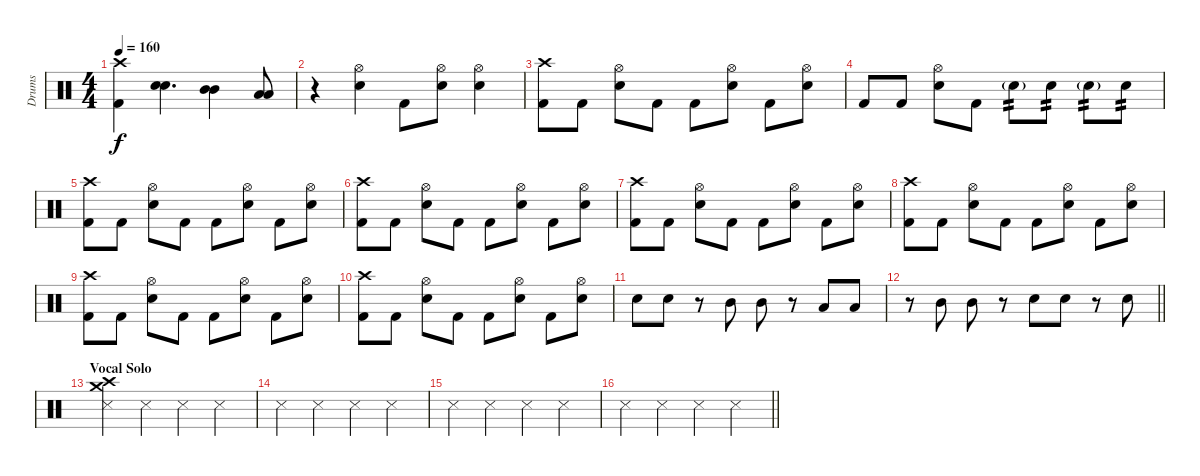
\track ("Drums" "Drums") {instrument percussion}
\staff {score}
\articulation defaults
\ts (4 4)
\tempo 160
\clef neutral
\ks c
("Crash high (hit)" "Kick (hit) 2").4{dy f} ("Electric Snare (hit)" "Electric Snare (hit)").4{d bu 240} ("Mid Tom (hit)" "Mid Tom (hit)").4{bu 480} ("Low Tom (hit)" "Low Tom (hit)").8{bu 480} |
r.4 ("Hi-Hat (open)" "Electric Snare (hit)").4 "Kick (hit) 2".8 ("Hi-Hat (open)" "Electric Snare (hit)").8 ("Hi-Hat (open)" "Electric Snare (hit)").4 |
("Crash high (hit)" "Kick (hit) 2").8 "Kick (hit) 2".8 ("Hi-Hat (open)" "Electric Snare (hit)").8 "Kick (hit) 2".8 "Kick (hit) 2".8 ("Hi-Hat (open)" "Electric Snare (hit)").8 "Kick (hit) 2".8 ("Hi-Hat (open)" "Electric Snare (hit)").8 |
"Kick (hit) 2".8 "Kick (hit) 2".8 ("Hi-Hat (open)" "Electric Snare (hit)").8 "Kick (hit) 2".8 "Electric Snare (hit)"{g}.8{tp 2} "Electric Snare (hit)".8{tp 2} "Electric Snare (hit)"{g}.8{tp 2} "Electric Snare (hit)".8{tp 2} |
("Crash high (hit)" "Kick (hit) 2").8 "Kick (hit) 2".8 ("Hi-Hat (open)" "Electric Snare (hit)").8 "Kick (hit) 2".8 "Kick (hit) 2".8 ("Hi-Hat (open)" "Electric Snare (hit)").8 "Kick (hit) 2".8 ("Hi-Hat (open)" "Electric Snare (hit)").8 |
("Crash high (hit)" "Kick (hit) 2").8 "Kick (hit) 2".8 ("Hi-Hat (open)" "Electric Snare (hit)").8 "Kick (hit) 2".8 "Kick (hit) 2".8 ("Hi-Hat (open)" "Electric Snare (hit)").8 "Kick (hit) 2".8 ("Hi-Hat (open)" "Electric Snare (hit)").8 |
("Crash high (hit)" "Kick (hit) 2").8 "Kick (hit) 2".8 ("Hi-Hat (open)" "Electric Snare (hit)").8 "Kick (hit) 2".8 "Kick (hit) 2".8 ("Hi-Hat (open)" "Electric Snare (hit)").8 "Kick (hit) 2".8 ("Hi-Hat (open)" "Electric Snare (hit)").8 |
("Crash high (hit)" "Kick (hit) 2").8 "Kick (hit) 2".8 ("Hi-Hat (open)" "Electric Snare (hit)").8 "Kick (hit) 2".8 "Kick (hit) 2".8 ("Hi-Hat (open)" "Electric Snare (hit)").8 "Kick (hit) 2".8 ("Hi-Hat (open)" "Electric Snare (hit)").8 |
("Crash high (hit)" "Kick (hit) 2").8 "Kick (hit) 2".8 ("Hi-Hat (open)" "Electric Snare (hit)").8 "Kick (hit) 2".8 "Kick (hit) 2".8 ("Hi-Hat (open)" "Electric Snare (hit)").8 "Kick (hit) 2".8 ("Hi-Hat (open)" "Electric Snare (hit)").8 |
("Crash high (hit)" "Kick (hit) 2").8 "Kick (hit) 2".8 ("Hi-Hat (open)" "Electric Snare (hit)").8 "Kick (hit) 2".8 "Kick (hit) 2".8 ("Hi-Hat (open)" "Electric Snare (hit)").8 "Kick (hit) 2".8 ("Hi-Hat (open)" "Electric Snare (hit)").8 |
"Electric Snare (hit)".8 "Electric Snare (hit)".8 r.8 "Mid Tom (hit)".8 "Mid Tom (hit)".8 r.8 "Low Tom (hit)".8 "Low Tom (hit)".8 |
\barLineRight lightlight
r.8 "Mid Tom (hit)".8 "Mid Tom (hit)".8 r.8 "Electric Snare (hit)".8 "Electric Snare (hit)".8 r.8 "Electric Snare (hit)".8 |
\section ("" "Vocal Solo")
("Crash high (hit)" "Crash medium (hit)" "Snare (side stick) 3").4 "Snare (side stick) 3".4 "Snare (side stick) 3".4 "Snare (side stick) 3".4 |
"Snare (side stick) 3".4 "Snare (side stick) 3".4 "Snare (side stick) 3".4 "Snare (side stick) 3".4 |
"Snare (side stick) 3".4 "Snare (side stick) 3".4 "Snare (side stick) 3".4 "Snare (side stick) 3".4 |
\barLineRight lightlight "Snare (side stick) 3".4 "Snare (side stick) 3".4 "Snare (side stick) 3".4 "Snare (side stick) 3".4
